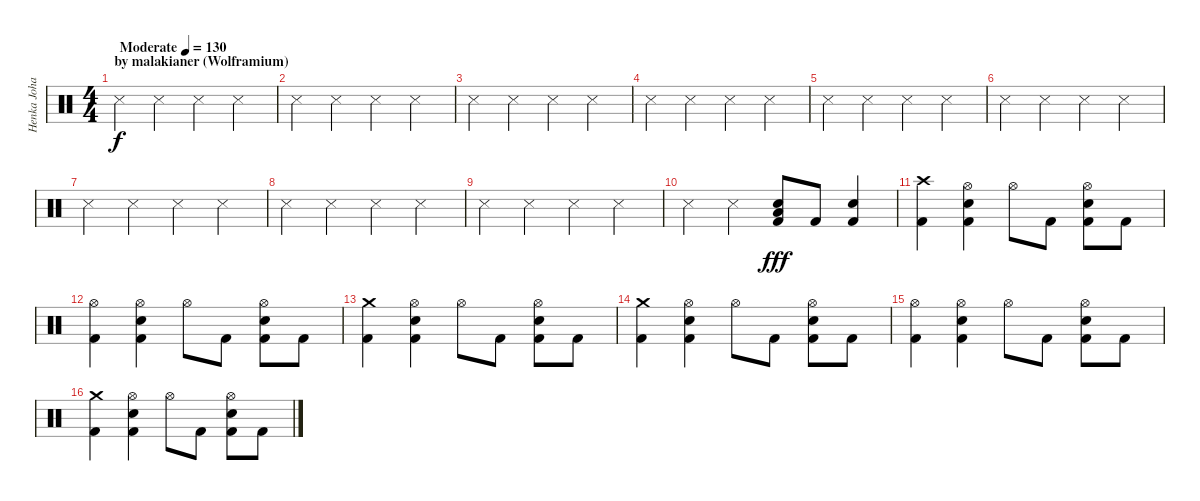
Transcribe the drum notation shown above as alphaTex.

\track ("Henka Johansson" "Henka Joha") {instrument percussion}
\staff {score}
\articulation defaults
\ts (4 4)
\section ("" "by malakianer (Wolframium)")
\tempo (130 "Moderate")
\clef neutral
\ks c "Snare (side stick) 3".4{dy f} "Snare (side stick) 3".4 "Snare (side stick) 3".4 "Snare (side stick) 3".4
|
"Snare (side stick) 3".4 "Snare (side stick) 3".4 "Snare (side stick) 3".4 "Snare (side stick) 3".4 |
"Snare (side stick) 3".4 "Snare (side stick) 3".4 "Snare (side stick) 3".4 "Snare (side stick) 3".4 |
"Snare (side stick) 3".4 "Snare (side stick) 3".4 "Snare (side stick) 3".4 "Snare (side stick) 3".4 |
"Snare (side stick) 3".4 "Snare (side stick) 3".4 "Snare (side stick) 3".4 "Snare (side stick) 3".4 |
"Snare (side stick) 3".4 "Snare (side stick) 3".4 "Snare (side stick) 3".4 "Snare (side stick) 3".4 |
"Snare (side stick) 3".4 "Snare (side stick) 3".4 "Snare (side stick) 3".4 "Snare (side stick) 3".4 |
"Snare (side stick) 3".4 "Snare (side stick) 3".4 "Snare (side stick) 3".4 "Snare (side stick) 3".4 |
"Snare (side stick) 3".4 "Snare (side stick) 3".4 "Snare (side stick) 3".4 "Snare (side stick) 3".4 |
"Snare (side stick) 3".4 "Snare (side stick) 3".4 ("Electric Snare (hit)" "Low Tom (hit)" "Kick (hit) 2").8{dy fff} "Kick (hit) 2".8 ("Snare (hit) 2" "Kick (hit) 2").4 |
("Crash high (hit)" "Kick (hit) 2").4 ("Hi-Hat (open)" "Electric Snare (hit)" "Kick (hit) 2").4 "Hi-Hat (open)".8 "Kick (hit) 2".8 ("Hi-Hat (open)" "Electric Snare (hit)" "Kick (hit) 2").8 "Kick (hit) 2".8 |
("Hi-Hat (open)" "Kick (hit) 2").4 ("Hi-Hat (open)" "Electric Snare (hit)" "Kick (hit) 2").4 "Hi-Hat (open)".8 "Kick (hit) 2".8 ("Hi-Hat (open)" "Electric Snare (hit)" "Kick (hit) 2").8 "Kick (hit) 2".8 |
("Crash medium (hit)" "Kick (hit) 2").4 ("Hi-Hat (open)" "Electric Snare (hit)" "Kick (hit) 2").4 "Hi-Hat (open)".8 "Kick (hit) 2".8 ("Hi-Hat (open)" "Electric Snare (hit)" "Kick (hit) 2").8 "Kick (hit) 2".8 |
("Crash medium (hit)" "Kick (hit) 2").4 ("Hi-Hat (open)" "Electric Snare (hit)" "Kick (hit) 2").4 "Hi-Hat (open)".8 "Kick (hit) 2".8 ("Hi-Hat (open)" "Electric Snare (hit)" "Kick (hit) 2").8 "Kick (hit) 2".8 |
("Hi-Hat (open)" "Kick (hit) 2").4 ("Hi-Hat (open)" "Electric Snare (hit)" "Kick (hit) 2").4 "Hi-Hat (open)".8 "Kick (hit) 2".8 ("Hi-Hat (open)" "Electric Snare (hit)" "Kick (hit) 2").8 "Kick (hit) 2".8 |
("Crash medium (hit)" "Kick (hit) 2").4 ("Hi-Hat (open)" "Electric Snare (hit)" "Kick (hit) 2").4 "Hi-Hat (open)".8 "Kick (hit) 2".8 ("Hi-Hat (open)" "Electric Snare (hit)" "Kick (hit) 2").8 "Kick (hit) 2".8
